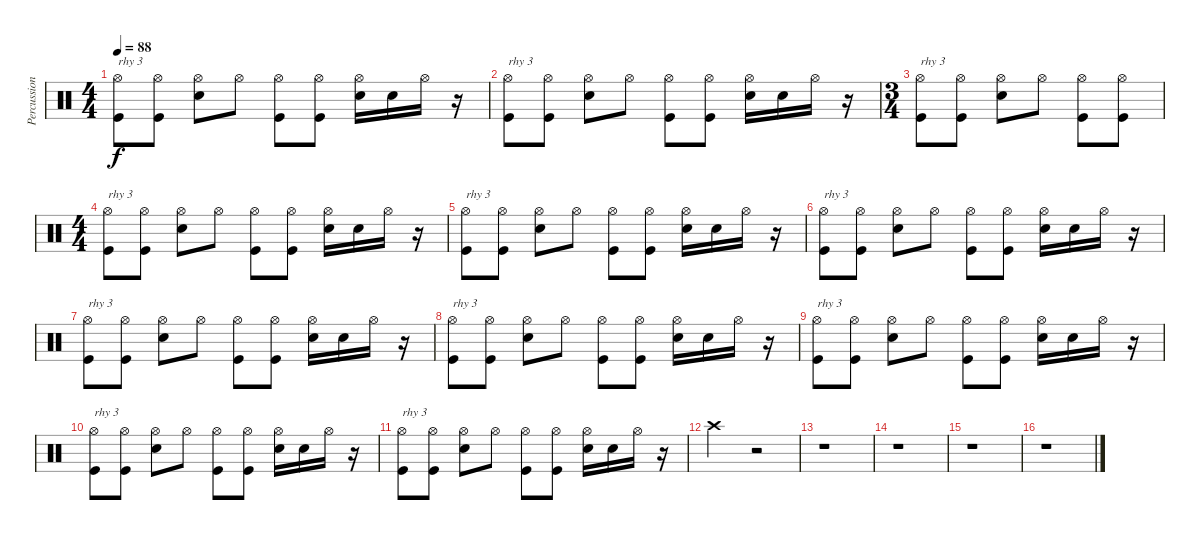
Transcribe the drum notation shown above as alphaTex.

\track ("Percussion" "Percussion") {instrument percussion}
\staff {score}
\articulation defaults
\ts (4 4)
\tempo 88
\clef neutral
\ks c
("Hi-Hat (open)" "Kick (hit)").8{txt "rhy 3" dy f} ("Hi-Hat (open)" "Kick (hit)").8 ("Hi-Hat (open)" "Snare (hit) 2").8 "Hi-Hat (open)".8 ("Hi-Hat (open)" "Kick (hit)").8 ("Hi-Hat (open)" "Kick (hit)").8 ("Hi-Hat (open)" "Snare (hit) 2").16 "Snare (hit) 2".16 "Hi-Hat (open)".16 r.16 |
("Hi-Hat (open)" "Kick (hit)").8{txt "rhy 3"} ("Hi-Hat (open)" "Kick (hit)").8 ("Hi-Hat (open)" "Snare (hit) 2").8 "Hi-Hat (open)".8 ("Hi-Hat (open)" "Kick (hit)").8 ("Hi-Hat (open)" "Kick (hit)").8 ("Hi-Hat (open)" "Snare (hit) 2").16 "Snare (hit) 2".16 "Hi-Hat (open)".16 r.16 |
\ts (3 4)
("Hi-Hat (open)" "Kick (hit)").8{txt "rhy 3"} ("Hi-Hat (open)" "Kick (hit)").8 ("Hi-Hat (open)" "Snare (hit) 2").8 "Hi-Hat (open)".8 ("Hi-Hat (open)" "Kick (hit)").8 ("Hi-Hat (open)" "Kick (hit)").8 |
\ts (4 4)
("Hi-Hat (open)" "Kick (hit)").8{txt "rhy 3"} ("Hi-Hat (open)" "Kick (hit)").8 ("Hi-Hat (open)" "Snare (hit) 2").8 "Hi-Hat (open)".8 ("Hi-Hat (open)" "Kick (hit)").8 ("Hi-Hat (open)" "Kick (hit)").8 ("Hi-Hat (open)" "Snare (hit) 2").16 "Snare (hit) 2".16 "Hi-Hat (open)".16 r.16 |
("Hi-Hat (open)" "Kick (hit)").8{txt "rhy 3"} ("Hi-Hat (open)" "Kick (hit)").8 ("Hi-Hat (open)" "Snare (hit) 2").8 "Hi-Hat (open)".8 ("Hi-Hat (open)" "Kick (hit)").8 ("Hi-Hat (open)" "Kick (hit)").8 ("Hi-Hat (open)" "Snare (hit) 2").16 "Snare (hit) 2".16 "Hi-Hat (open)".16 r.16 |
("Hi-Hat (open)" "Kick (hit)").8{txt "rhy 3"} ("Hi-Hat (open)" "Kick (hit)").8 ("Hi-Hat (open)" "Snare (hit) 2").8 "Hi-Hat (open)".8 ("Hi-Hat (open)" "Kick (hit)").8 ("Hi-Hat (open)" "Kick (hit)").8 ("Hi-Hat (open)" "Snare (hit) 2").16 "Snare (hit) 2".16 "Hi-Hat (open)".16 r.16 |
("Hi-Hat (open)" "Kick (hit)").8{txt "rhy 3"} ("Hi-Hat (open)" "Kick (hit)").8 ("Hi-Hat (open)" "Snare (hit) 2").8 "Hi-Hat (open)".8 ("Hi-Hat (open)" "Kick (hit)").8 ("Hi-Hat (open)" "Kick (hit)").8 ("Hi-Hat (open)" "Snare (hit) 2").16 "Snare (hit) 2".16 "Hi-Hat (open)".16 r.16 |
("Hi-Hat (open)" "Kick (hit)").8{txt "rhy 3"} ("Hi-Hat (open)" "Kick (hit)").8 ("Hi-Hat (open)" "Snare (hit) 2").8 "Hi-Hat (open)".8 ("Hi-Hat (open)" "Kick (hit)").8 ("Hi-Hat (open)" "Kick (hit)").8 ("Hi-Hat (open)" "Snare (hit) 2").16 "Snare (hit) 2".16 "Hi-Hat (open)".16 r.16 |
("Hi-Hat (open)" "Kick (hit)").8{txt "rhy 3"} ("Hi-Hat (open)" "Kick (hit)").8 ("Hi-Hat (open)" "Snare (hit) 2").8 "Hi-Hat (open)".8 ("Hi-Hat (open)" "Kick (hit)").8 ("Hi-Hat (open)" "Kick (hit)").8 ("Hi-Hat (open)" "Snare (hit) 2").16 "Snare (hit) 2".16 "Hi-Hat (open)".16 r.16 |
("Hi-Hat (open)" "Kick (hit)").8{txt "rhy 3"} ("Hi-Hat (open)" "Kick (hit)").8 ("Hi-Hat (open)" "Snare (hit) 2").8 "Hi-Hat (open)".8 ("Hi-Hat (open)" "Kick (hit)").8 ("Hi-Hat (open)" "Kick (hit)").8 ("Hi-Hat (open)" "Snare (hit) 2").16 "Snare (hit) 2".16 "Hi-Hat (open)".16 r.16 |
("Hi-Hat (open)" "Kick (hit)").8{txt "rhy 3"} ("Hi-Hat (open)" "Kick (hit)").8 ("Hi-Hat (open)" "Snare (hit) 2").8 "Hi-Hat (open)".8 ("Hi-Hat (open)" "Kick (hit)").8 ("Hi-Hat (open)" "Kick (hit)").8 ("Hi-Hat (open)" "Snare (hit) 2").16 "Snare (hit) 2".16 "Hi-Hat (open)".16 r.16 |
"Crash high (hit)".2 r.2 |
r.1 |
r.1 |
r.1 |
r.1
